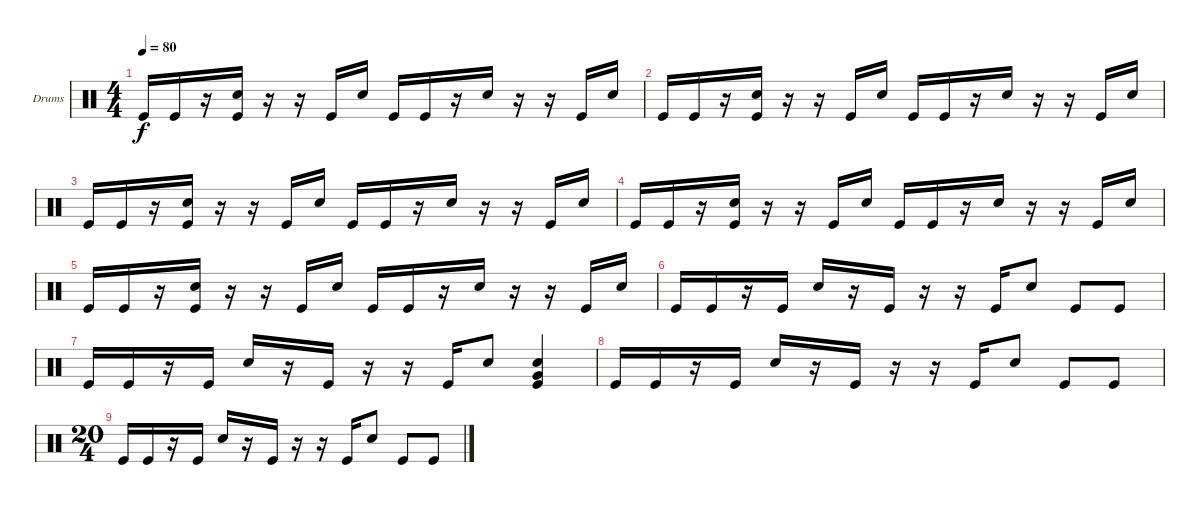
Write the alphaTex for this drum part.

\bracketExtendMode groupsimilarinstruments
\firstSystemTrackNameOrientation horizontal
\otherSystemsTrackNameOrientation horizontal
\track ("Drumkit" "Drums") {instrument percussion}
\staff {score}
\articulation defaults
\ts (4 4)
\tempo 80
\clef neutral
\scale
0.333333
\ks c "Kick (hit)".16{dy f} "Kick (hit)".16
r.16 ("Kick (hit)" "Snare (hit) 2").16 r.16 r.16 "Kick (hit)".16 "Snare (hit) 2".16 "Kick (hit)".16 "Kick (hit)".16 r.16 "Snare (hit) 2".16 r.16 r.16 "Kick (hit)".16 "Snare (hit) 2".16 |
\scale
0.333333 "Kick (hit)".16 "Kick (hit)".16 r.16 ("Kick (hit)" "Snare (hit) 2").16 r.16 r.16 "Kick (hit)".16 "Snare (hit) 2".16 "Kick (hit)".16 "Kick (hit)".16 r.16 "Snare (hit) 2".16 r.16 r.16 "Kick (hit)".16 "Snare (hit) 2".16 |
\scale
0.333333 "Kick (hit)".16 "Kick (hit)".16 r.16 ("Kick (hit)" "Snare (hit) 2").16 r.16 r.16 "Kick (hit)".16 "Snare (hit) 2".16 "Kick (hit)".16 "Kick (hit)".16 r.16 "Snare (hit) 2".16 r.16 r.16 "Kick (hit)".16 "Snare (hit) 2".16 |
\scale
0.333333 "Kick (hit)".16 "Kick (hit)".16 r.16 ("Kick (hit)" "Snare (hit) 2").16 r.16 r.16 "Kick (hit)".16 "Snare (hit) 2".16 "Kick (hit)".16 "Kick (hit)".16 r.16 "Snare (hit) 2".16 r.16 r.16 "Kick (hit)".16 "Snare (hit) 2".16 |
\scale
0.333333 "Kick (hit)".16 "Kick (hit)".16 r.16 ("Kick (hit)" "Snare (hit) 2").16 r.16 r.16 "Kick (hit)".16 "Snare (hit) 2".16 "Kick (hit)".16 "Kick (hit)".16 r.16 "Snare (hit) 2".16 r.16 r.16 "Kick (hit)".16 "Snare (hit) 2".16 |
\scale
0.333333 "Kick (hit)".16 "Kick (hit)".16 r.16 "Kick (hit)".16 "Snare (hit) 2".16 r.16 "Kick (hit)".16 r.16 r.16 "Kick (hit)".16 "Snare (hit) 2".8 "Kick (hit)".8 "Kick (hit)".8 |
\scale
0.333333 "Kick (hit)".16 "Kick (hit)".16 r.16 "Kick (hit)".16 "Snare (hit) 2".16 r.16 "Kick (hit)".16 r.16 r.16 "Kick (hit)".16 "Snare (hit) 2".8 ("Kick (hit)" "Snare (hit) 2" "Very Low Tom (hit)").4 |
\scale
0.333333 "Kick (hit)".16 "Kick (hit)".16 r.16 "Kick (hit)".16 "Snare (hit) 2".16 r.16 "Kick (hit)".16 r.16 r.16 "Kick (hit)".16 "Snare (hit) 2".8 "Kick (hit)".8 "Kick (hit)".8 |
\ts (20 4)
"Kick (hit)".16 "Kick (hit)".16 r.16 "Kick (hit)".16 "Snare (hit) 2".16 r.16 "Kick (hit)".16 r.16 r.16 "Kick (hit)".16 "Snare (hit) 2".8 "Kick (hit)".8 "Kick (hit)".8
